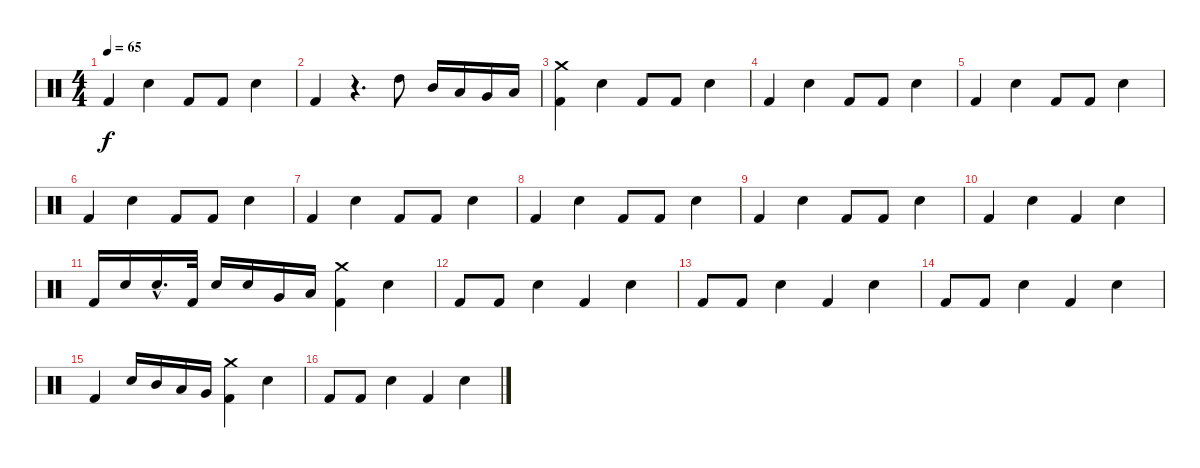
\track "" {instrument percussion}
\staff {score}
\articulation defaults
\ts (4 4)
\tempo 65
\clef neutral
\ks c "Kick (hit) 2".4{dy f} "Snare (hit) 2".4 "Kick (hit) 2".8 "Kick (hit) 2".8 "Snare (hit) 2".4
|
"Kick (hit) 2".4 r.4{d} "High Tom (hit)".8 "Mid Tom (hit)".16 "Low Tom (hit)".16 "Very Low Tom (hit)".16 "Low Floor Tom (hit)".16 |
("Kick (hit) 2" "Crash medium (hit)").4 "Snare (hit) 2".4 "Kick (hit) 2".8 "Kick (hit) 2".8 "Snare (hit) 2".4 |
"Kick (hit) 2".4 "Snare (hit) 2".4 "Kick (hit) 2".8 "Kick (hit) 2".8 "Snare (hit) 2".4 |
"Kick (hit) 2".4 "Snare (hit) 2".4 "Kick (hit) 2".8 "Kick (hit) 2".8 "Snare (hit) 2".4 |
"Kick (hit) 2".4 "Snare (hit) 2".4 "Kick (hit) 2".8 "Kick (hit) 2".8 "Snare (hit) 2".4 |
"Kick (hit) 2".4 "Snare (hit) 2".4 "Kick (hit) 2".8 "Kick (hit) 2".8 "Snare (hit) 2".4 |
"Kick (hit) 2".4 "Snare (hit) 2".4 "Kick (hit) 2".8 "Kick (hit) 2".8 "Snare (hit) 2".4 |
"Kick (hit) 2".4 "Snare (hit) 2".4 "Kick (hit) 2".8 "Kick (hit) 2".8 "Snare (hit) 2".4 |
"Kick (hit) 2".4 "Snare (hit) 2".4 "Kick (hit) 2".4 "Snare (hit) 2".4 |
"Kick (hit) 2".16 "Snare (hit) 2".16 "Snare (hit) 2"{hac}.16{d} "Kick (hit) 2".32 "Snare (hit) 2".16 "Snare (hit) 2".16 "Very Low Tom (hit)".16 "Low Floor Tom (hit)".16 ("Kick (hit) 2" "Crash medium (hit)").4 "Snare (hit) 2".4 |
"Kick (hit) 2".8 "Kick (hit) 2".8 "Snare (hit) 2".4 "Kick (hit) 2".4 "Snare (hit) 2".4 |
"Kick (hit) 2".8 "Kick (hit) 2".8 "Snare (hit) 2".4 "Kick (hit) 2".4 "Snare (hit) 2".4 |
"Kick (hit) 2".8 "Kick (hit) 2".8 "Snare (hit) 2".4 "Kick (hit) 2".4 "Snare (hit) 2".4 |
"Kick (hit) 2".4 "Electric Snare (hit)".16 "Mid Tom (hit)".16 "Low Tom (hit)".16 "Very Low Tom (hit)".16 ("Kick (hit) 2" "Crash medium (hit)").4 "Snare (hit) 2".4 |
"Kick (hit) 2".8 "Kick (hit) 2".8 "Snare (hit) 2".4 "Kick (hit) 2".4 "Snare (hit) 2".4
